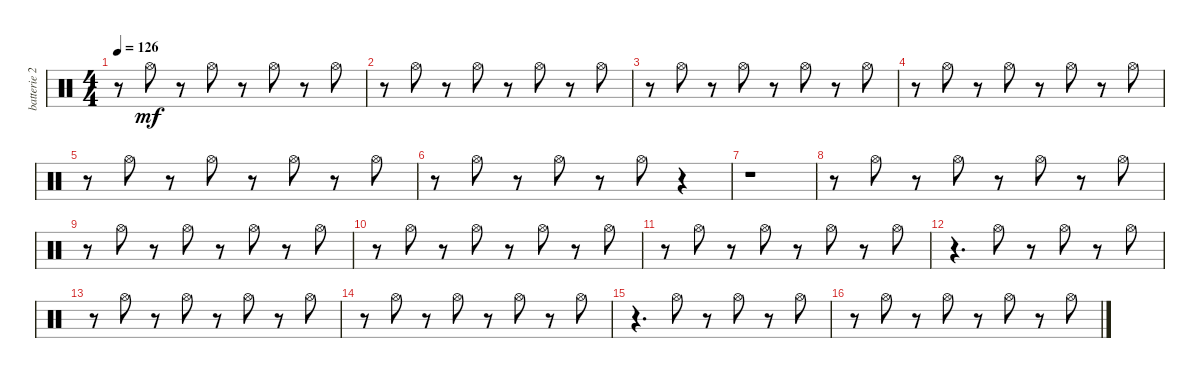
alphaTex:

\track ("batterie 2" "batterie 2") {instrument percussion}
\staff {score}
\articulation defaults
\ts (4 4)
\tempo 126
\clef neutral
\ks c
r.8{dy mf} "Hi-Hat (open)".8 r.8 "Hi-Hat (open)".8 r.8 "Hi-Hat (open)".8 r.8 "Hi-Hat (open)".8 |
r.8 "Hi-Hat (open)".8 r.8 "Hi-Hat (open)".8 r.8 "Hi-Hat (open)".8 r.8 "Hi-Hat (open)".8 |
r.8 "Hi-Hat (open)".8 r.8 "Hi-Hat (open)".8 r.8 "Hi-Hat (open)".8 r.8 "Hi-Hat (open)".8 |
r.8 "Hi-Hat (open)".8 r.8 "Hi-Hat (open)".8 r.8 "Hi-Hat (open)".8 r.8 "Hi-Hat (open)".8 |
r.8 "Hi-Hat (open)".8 r.8 "Hi-Hat (open)".8 r.8 "Hi-Hat (open)".8 r.8 "Hi-Hat (open)".8 |
r.8 "Hi-Hat (open)".8 r.8 "Hi-Hat (open)".8 r.8 "Hi-Hat (open)".8 r.4 |
r.1 |
r.8 "Hi-Hat (open)".8 r.8 "Hi-Hat (open)".8 r.8 "Hi-Hat (open)".8 r.8 "Hi-Hat (open)".8 |
r.8 "Hi-Hat (open)".8 r.8 "Hi-Hat (open)".8 r.8 "Hi-Hat (open)".8 r.8 "Hi-Hat (open)".8 |
r.8 "Hi-Hat (open)".8 r.8 "Hi-Hat (open)".8 r.8 "Hi-Hat (open)".8 r.8 "Hi-Hat (open)".8 |
r.8 "Hi-Hat (open)".8 r.8 "Hi-Hat (open)".8 r.8 "Hi-Hat (open)".8 r.8 "Hi-Hat (open)".8 |
r.4{d} "Hi-Hat (open)".8 r.8 "Hi-Hat (open)".8 r.8 "Hi-Hat (open)".8 |
r.8 "Hi-Hat (open)".8 r.8 "Hi-Hat (open)".8 r.8 "Hi-Hat (open)".8 r.8 "Hi-Hat (open)".8 |
r.8 "Hi-Hat (open)".8 r.8 "Hi-Hat (open)".8 r.8 "Hi-Hat (open)".8 r.8 "Hi-Hat (open)".8 |
r.4{d} "Hi-Hat (open)".8 r.8 "Hi-Hat (open)".8 r.8 "Hi-Hat (open)".8 |
r.8 "Hi-Hat (open)".8 r.8 "Hi-Hat (open)".8 r.8 "Hi-Hat (open)".8 r.8 "Hi-Hat (open)".8
